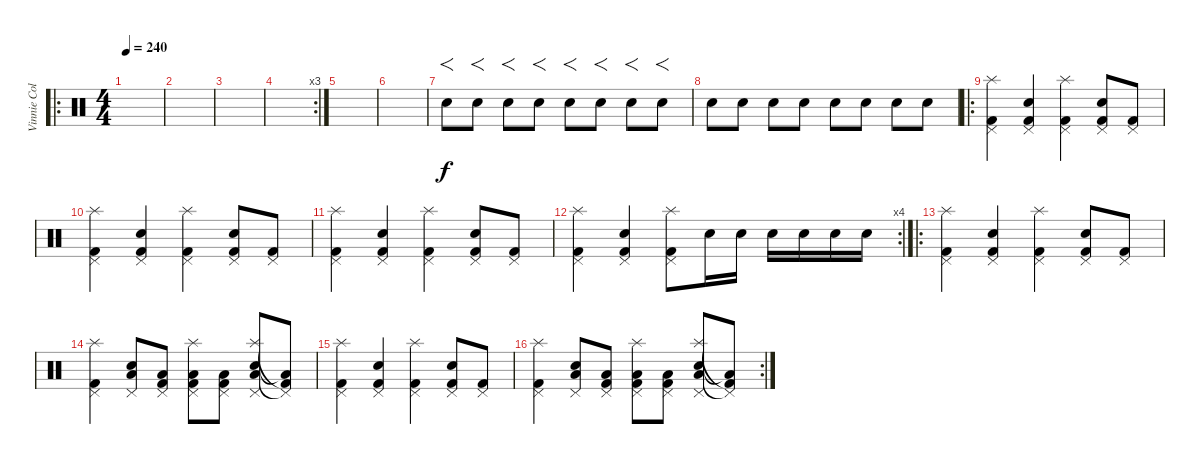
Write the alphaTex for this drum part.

\track ("Vinnie Colaiuta" "Vinnie Col") {instrument percussion}
\staff {score}
\articulation defaults
\ro
\ts (4 4)
\tempo 240
\clef neutral
\ks c
|
|
|
\rc 3
|
|
|
"Snare (hit) 2".8{f} "Snare (hit) 2".8{f} "Snare (hit) 2".8{f} "Snare (hit) 2".8{f} "Snare (hit) 2".8{f} "Snare (hit) 2".8{f} "Snare (hit) 2".8{f} "Snare (hit) 2".8{f} |
"Snare (hit) 2".8 "Snare (hit) 2".8 "Snare (hit) 2".8 "Snare (hit) 2".8 "Snare (hit) 2".8 "Snare (hit) 2".8 "Snare (hit) 2".8 "Snare (hit) 2".8 |
\ro
("Splash (hit)" "Kick (hit) 2" "Pedal Hi-Hat (hit)").4 ("Snare (hit) 2" "Kick (hit) 2" "Pedal Hi-Hat (hit)").4 ("Splash (hit)" "Kick (hit) 2" "Pedal Hi-Hat (hit)").4 ("Snare (hit) 2" "Kick (hit) 2" "Pedal Hi-Hat (hit)").8 ("Kick (hit) 2" "Pedal Hi-Hat (hit)").8 |
("Splash (hit)" "Kick (hit) 2" "Pedal Hi-Hat (hit)").4 ("Snare (hit) 2" "Kick (hit) 2" "Pedal Hi-Hat (hit)").4 ("Splash (hit)" "Kick (hit) 2" "Pedal Hi-Hat (hit)").4 ("Snare (hit) 2" "Kick (hit) 2" "Pedal Hi-Hat (hit)").8 ("Kick (hit) 2" "Pedal Hi-Hat (hit)").8 |
("Splash (hit)" "Kick (hit) 2" "Pedal Hi-Hat (hit)").4 ("Snare (hit) 2" "Kick (hit) 2" "Pedal Hi-Hat (hit)").4 ("Splash (hit)" "Kick (hit) 2" "Pedal Hi-Hat (hit)").4 ("Snare (hit) 2" "Kick (hit) 2" "Pedal Hi-Hat (hit)").8 ("Kick (hit) 2" "Pedal Hi-Hat (hit)").8 |
\rc 4
("Splash (hit)" "Kick (hit) 2" "Pedal Hi-Hat (hit)").4 ("Snare (hit) 2" "Kick (hit) 2" "Pedal Hi-Hat (hit)").4 ("Splash (hit)" "Kick (hit) 2" "Pedal Hi-Hat (hit)").8 "Snare (hit) 2".16 "Snare (hit) 2".16 "Snare (hit) 2".16 "Snare (hit) 2".16 "Snare (hit) 2".16 "Snare (hit) 2".16 |
\ro
("Splash (hit)" "Kick (hit) 2" "Pedal Hi-Hat (hit)").4 ("Snare (hit) 2" "Kick (hit) 2" "Pedal Hi-Hat (hit)").4 ("Splash (hit)" "Kick (hit) 2" "Pedal Hi-Hat (hit)").4 ("Snare (hit) 2" "Kick (hit) 2" "Pedal Hi-Hat (hit)").8 ("Kick (hit) 2" "Pedal Hi-Hat (hit)").8 |
("Splash (hit)" "Kick (hit) 2" "Pedal Hi-Hat (hit)").4 ("Snare (hit) 2" "Low Floor Tom (hit)" "Pedal Hi-Hat (hit)").8 ("Kick (hit) 2" "Low Floor Tom (hit)" "Pedal Hi-Hat (hit)").8 ("Splash (hit)" "Kick (hit) 2" "Low Floor Tom (hit)" "Pedal Hi-Hat (hit)").8 ("Kick (hit) 2" "Low Floor Tom (hit)" "Pedal Hi-Hat (hit)").8 ("Splash (hit)" "Snare (hit) 2" "Low Floor Tom (hit)" "Pedal Hi-Hat (hit)").8 ("Kick (hit) 2"{t} "Low Floor Tom (hit)"{t} "Pedal Hi-Hat (hit)"{t}).8 |
("Splash (hit)" "Kick (hit) 2" "Pedal Hi-Hat (hit)").4 ("Snare (hit) 2" "Kick (hit) 2" "Pedal Hi-Hat (hit)").4 ("Splash (hit)" "Kick (hit) 2" "Pedal Hi-Hat (hit)").4 ("Snare (hit) 2" "Kick (hit) 2" "Pedal Hi-Hat (hit)").8 ("Kick (hit) 2" "Pedal Hi-Hat (hit)").8 |
\rc 2
("Splash (hit)" "Kick (hit) 2" "Pedal Hi-Hat (hit)").4 ("Snare (hit) 2" "Low Floor Tom (hit)" "Pedal Hi-Hat (hit)").8 ("Kick (hit) 2" "Low Floor Tom (hit)" "Pedal Hi-Hat (hit)").8 ("Splash (hit)" "Kick (hit) 2" "Low Floor Tom (hit)" "Pedal Hi-Hat (hit)").8 ("Kick (hit) 2" "Low Floor Tom (hit)" "Pedal Hi-Hat (hit)").8 ("Splash (hit)" "Snare (hit) 2" "Low Floor Tom (hit)" "Pedal Hi-Hat (hit)").8 ("Kick (hit) 2"{t} "Low Floor Tom (hit)"{t} "Pedal Hi-Hat (hit)"{t}).8
